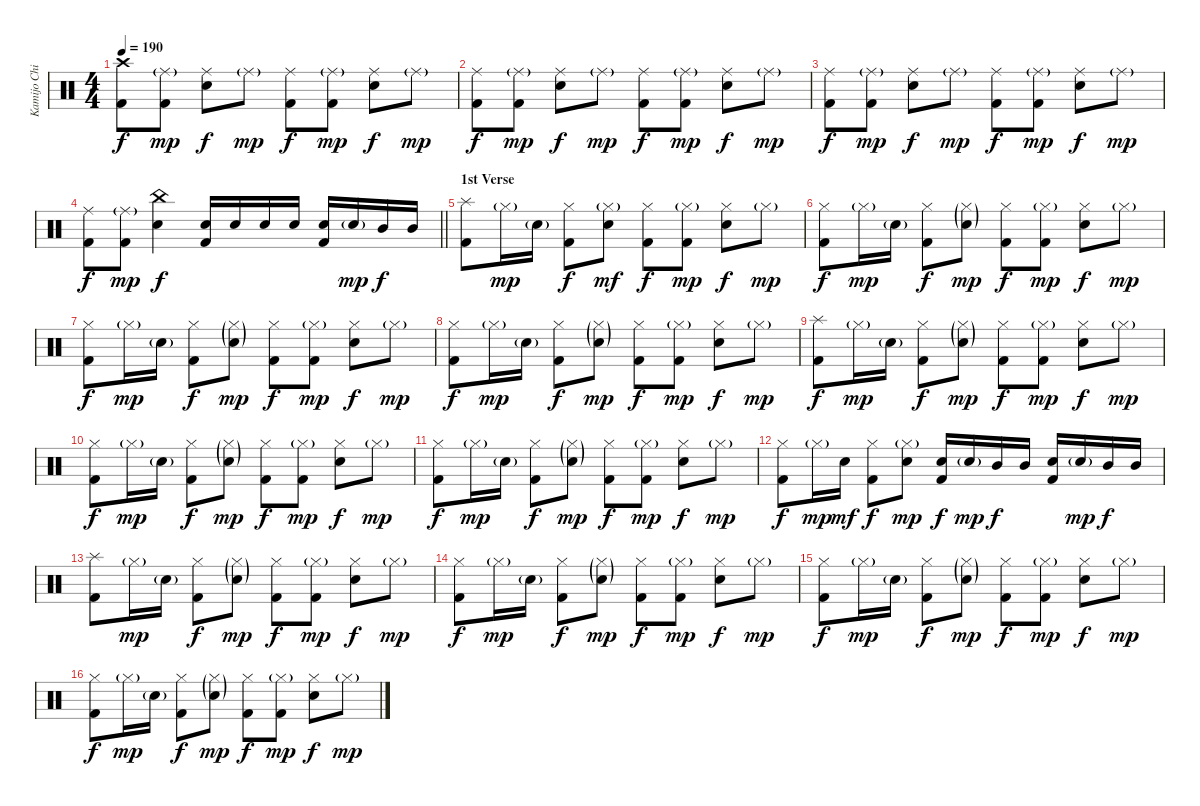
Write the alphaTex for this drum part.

\track ("Kamijo Chihiro" "Kamijo Chi") {instrument percussion}
\staff {score}
\articulation defaults
\ts (4 4)
\tempo 190
\clef neutral
\ks c
("Crash high (hit)" "Kick (hit) 2").8{dy f} ("Ride (middle)"{g} "Kick (hit) 2").8{dy mp} ("Ride (middle)" "Snare (hit) 2").8{dy f} "Ride (middle)"{g}.8{dy mp} ("Ride (middle)" "Kick (hit) 2").8{dy f} ("Ride (middle)"{g} "Kick (hit) 2").8{dy mp} ("Ride (middle)" "Snare (hit) 2").8{dy f} "Ride (middle)"{g}.8{dy mp} |
("Ride (middle)" "Kick (hit) 2").8{dy f} ("Ride (middle)"{g} "Kick (hit) 2").8{dy mp} ("Ride (middle)" "Snare (hit) 2").8{dy f} "Ride (middle)"{g}.8{dy mp} ("Ride (middle)" "Kick (hit) 2").8{dy f} ("Ride (middle)"{g} "Kick (hit) 2").8{dy mp} ("Ride (middle)" "Snare (hit) 2").8{dy f} "Ride (middle)"{g}.8{dy mp} |
("Ride (middle)" "Kick (hit) 2").8{dy f} ("Ride (middle)"{g} "Kick (hit) 2").8{dy mp} ("Ride (middle)" "Snare (hit) 2").8{dy f} "Ride (middle)"{g}.8{dy mp} ("Ride (middle)" "Kick (hit) 2").8{dy f} ("Ride (middle)"{g} "Kick (hit) 2").8{dy mp} ("Ride (middle)" "Snare (hit) 2").8{dy f} "Ride (middle)"{g}.8{dy mp} |
\barLineRight lightlight
("Ride (middle)" "Kick (hit) 2").8{dy f} ("Ride (middle)"{g} "Kick (hit) 2").8{dy mp} ("China (hit)" "Snare (hit) 2").4{dy f} ("Snare (hit) 2" "Kick (hit) 2").16 "Snare (hit) 2".16 "Snare (hit) 2".16 "Snare (hit) 2".16 ("Snare (hit) 2" "Kick (hit) 2").16 "Snare (hit) 2"{g}.16{dy mp} "Mid Tom (hit)".16{dy f} "Mid Tom (hit)".16 |
\section ("" "1st Verse")
("Splash (hit)" "Kick (hit) 2").8 "Hi-Hat (closed)"{g}.16{dy mp} "Snare (hit) 2"{g}.16 ("Hi-Hat (closed)" "Kick (hit) 2").8{dy f} ("Hi-Hat (closed)"{g} "Snare (hit) 2").8{dy mf} ("Hi-Hat (closed)" "Kick (hit) 2").8{dy f} ("Hi-Hat (closed)"{g} "Kick (hit) 2").8{dy mp} ("Hi-Hat (closed)" "Snare (hit) 2").8{dy f} "Hi-Hat (closed)"{g}.8{dy mp} |
("Hi-Hat (closed)" "Kick (hit) 2").8{dy f} "Hi-Hat (closed)"{g}.16{dy mp} "Snare (hit) 2"{g}.16 ("Hi-Hat (closed)" "Kick (hit) 2").8{dy f} ("Hi-Hat (closed)"{g} "Snare (hit) 2"{g}).8{dy mp} ("Hi-Hat (closed)" "Kick (hit) 2").8{dy f} ("Hi-Hat (closed)"{g} "Kick (hit) 2").8{dy mp} ("Hi-Hat (closed)" "Snare (hit) 2").8{dy f} "Hi-Hat (closed)"{g}.8{dy mp} |
("Hi-Hat (closed)" "Kick (hit) 2").8{dy f} "Hi-Hat (closed)"{g}.16{dy mp} "Snare (hit) 2"{g}.16 ("Hi-Hat (closed)" "Kick (hit) 2").8{dy f} ("Hi-Hat (closed)"{g} "Snare (hit) 2"{g}).8{dy mp} ("Hi-Hat (closed)" "Kick (hit) 2").8{dy f} ("Hi-Hat (closed)"{g} "Kick (hit) 2").8{dy mp} ("Hi-Hat (closed)" "Snare (hit) 2").8{dy f} "Hi-Hat (closed)"{g}.8{dy mp} |
("Hi-Hat (closed)" "Kick (hit) 2").8{dy f} "Hi-Hat (closed)"{g}.16{dy mp} "Snare (hit) 2"{g}.16 ("Hi-Hat (closed)" "Kick (hit) 2").8{dy f} ("Hi-Hat (closed)"{g} "Snare (hit) 2"{g}).8{dy mp} ("Hi-Hat (closed)" "Kick (hit) 2").8{dy f} ("Hi-Hat (closed)"{g} "Kick (hit) 2").8{dy mp} ("Hi-Hat (closed)" "Snare (hit) 2").8{dy f} "Hi-Hat (closed)"{g}.8{dy mp} |
("Splash (hit)" "Kick (hit) 2").8{dy f} "Hi-Hat (closed)"{g}.16{dy mp} "Snare (hit) 2"{g}.16 ("Hi-Hat (closed)" "Kick (hit) 2").8{dy f} ("Hi-Hat (closed)"{g} "Snare (hit) 2"{g}).8{dy mp} ("Hi-Hat (closed)" "Kick (hit) 2").8{dy f} ("Hi-Hat (closed)"{g} "Kick (hit) 2").8{dy mp} ("Hi-Hat (closed)" "Snare (hit) 2").8{dy f} "Hi-Hat (closed)"{g}.8{dy mp} |
("Hi-Hat (closed)" "Kick (hit) 2").8{dy f} "Hi-Hat (closed)"{g}.16{dy mp} "Snare (hit) 2"{g}.16 ("Hi-Hat (closed)" "Kick (hit) 2").8{dy f} ("Hi-Hat (closed)"{g} "Snare (hit) 2"{g}).8{dy mp} ("Hi-Hat (closed)" "Kick (hit) 2").8{dy f} ("Hi-Hat (closed)"{g} "Kick (hit) 2").8{dy mp} ("Hi-Hat (closed)" "Snare (hit) 2").8{dy f} "Hi-Hat (closed)"{g}.8{dy mp} |
("Hi-Hat (closed)" "Kick (hit) 2").8{dy f} "Hi-Hat (closed)"{g}.16{dy mp} "Snare (hit) 2"{g}.16 ("Hi-Hat (closed)" "Kick (hit) 2").8{dy f} ("Hi-Hat (closed)"{g} "Snare (hit) 2"{g}).8{dy mp} ("Hi-Hat (closed)" "Kick (hit) 2").8{dy f} ("Hi-Hat (closed)"{g} "Kick (hit) 2").8{dy mp} ("Hi-Hat (closed)" "Snare (hit) 2").8{dy f} "Hi-Hat (closed)"{g}.8{dy mp} |
("Hi-Hat (closed)" "Kick (hit) 2").8{dy f} "Hi-Hat (closed)"{g}.16{dy mp} "Snare (hit) 2".16{dy mf} ("Hi-Hat (closed)" "Kick (hit) 2").8{dy f} ("Hi-Hat (closed)"{g} "Snare (hit) 2").8{dy mp} ("Snare (hit) 2" "Kick (hit) 2").16{dy f} "Snare (hit) 2"{g}.16{dy mp} "Mid Tom (hit)".16{dy f} "Mid Tom (hit)".16 ("Snare (hit) 2" "Kick (hit) 2").16 "Snare (hit) 2"{g}.16{dy mp} "Mid Tom (hit)".16{dy f} "Mid Tom (hit)".16 |
("Splash (hit)" "Kick (hit) 2").8 "Hi-Hat (closed)"{g}.16{dy mp} "Snare (hit) 2"{g}.16 ("Hi-Hat (closed)" "Kick (hit) 2").8{dy f} ("Hi-Hat (closed)"{g} "Snare (hit) 2"{g}).8{dy mp} ("Hi-Hat (closed)" "Kick (hit) 2").8{dy f} ("Hi-Hat (closed)"{g} "Kick (hit) 2").8{dy mp} ("Hi-Hat (closed)" "Snare (hit) 2").8{dy f} "Hi-Hat (closed)"{g}.8{dy mp} |
("Hi-Hat (closed)" "Kick (hit) 2").8{dy f} "Hi-Hat (closed)"{g}.16{dy mp} "Snare (hit) 2"{g}.16 ("Hi-Hat (closed)" "Kick (hit) 2").8{dy f} ("Hi-Hat (closed)"{g} "Snare (hit) 2"{g}).8{dy mp} ("Hi-Hat (closed)" "Kick (hit) 2").8{dy f} ("Hi-Hat (closed)"{g} "Kick (hit) 2").8{dy mp} ("Hi-Hat (closed)" "Snare (hit) 2").8{dy f} "Hi-Hat (closed)"{g}.8{dy mp} |
("Hi-Hat (closed)" "Kick (hit) 2").8{dy f} "Hi-Hat (closed)"{g}.16{dy mp} "Snare (hit) 2"{g}.16 ("Hi-Hat (closed)" "Kick (hit) 2").8{dy f} ("Hi-Hat (closed)"{g} "Snare (hit) 2"{g}).8{dy mp} ("Hi-Hat (closed)" "Kick (hit) 2").8{dy f} ("Hi-Hat (closed)"{g} "Kick (hit) 2").8{dy mp} ("Hi-Hat (closed)" "Snare (hit) 2").8{dy f} "Hi-Hat (closed)"{g}.8{dy mp} |
("Hi-Hat (closed)" "Kick (hit) 2").8{dy f} "Hi-Hat (closed)"{g}.16{dy mp} "Snare (hit) 2"{g}.16 ("Hi-Hat (closed)" "Kick (hit) 2").8{dy f} ("Hi-Hat (closed)"{g} "Snare (hit) 2"{g}).8{dy mp} ("Hi-Hat (closed)" "Kick (hit) 2").8{dy f} ("Hi-Hat (closed)"{g} "Kick (hit) 2").8{dy mp} ("Hi-Hat (closed)" "Snare (hit) 2").8{dy f} "Hi-Hat (closed)"{g}.8{dy mp}
